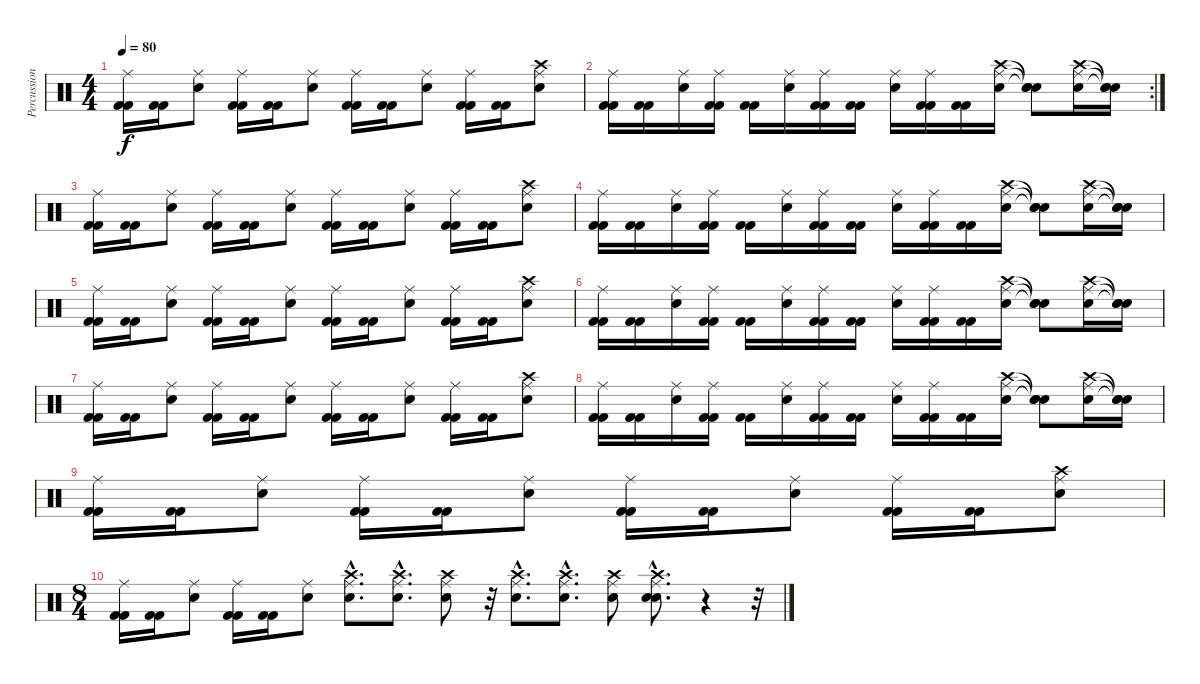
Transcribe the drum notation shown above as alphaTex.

\track ("Percussion" "Percussion") {instrument percussion}
\staff {score}
\articulation defaults
\ts (4 4)
\tempo 80
\clef neutral
\ks c
("Kick (hit) 2" "Kick (hit) 2" "Ride (middle)").16{dy f} ("Kick (hit) 2" "Kick (hit) 2").16 ("Snare (hit) 2" "Ride (middle)").8 ("Kick (hit) 2" "Kick (hit) 2" "Ride (middle)").16 ("Kick (hit) 2" "Kick (hit) 2").16 ("Snare (hit) 2" "Ride (middle)").8 ("Kick (hit) 2" "Kick (hit) 2" "Ride (middle)").16 ("Kick (hit) 2" "Kick (hit) 2").16 ("Snare (hit) 2" "Ride (middle)").8 ("Kick (hit) 2" "Kick (hit) 2" "Ride (middle)").16 ("Kick (hit) 2" "Kick (hit) 2").16 ("Snare (hit) 2" "Crash high (hit)" "Ride (middle)").8 |
\rc 2
("Kick (hit) 2" "Kick (hit) 2" "Ride (middle)").16 ("Kick (hit) 2" "Kick (hit) 2").16 ("Snare (hit) 2" "Ride (middle)").16 ("Kick (hit) 2" "Kick (hit) 2" "Ride (middle)").16 ("Kick (hit) 2" "Kick (hit) 2").16 ("Snare (hit) 2" "Ride (middle)").16 ("Kick (hit) 2" "Kick (hit) 2" "Ride (middle)").16 ("Kick (hit) 2" "Kick (hit) 2").16 ("Snare (hit) 2" "Ride (middle)").16 ("Kick (hit) 2" "Kick (hit) 2" "Ride (middle)").16 ("Kick (hit) 2" "Kick (hit) 2").16 ("Snare (hit) 2" "Crash high (hit)" "Ride (middle)").16 ("Snare (hit)"{t} "Snare (hit)"{t} "Snare (hit)"{t}).8 ("Snare (hit) 2" "Crash high (hit)" "Ride (middle)").16 ("Snare (hit)"{t} "Snare (hit)"{t} "Snare (hit)"{t}).16 |
("Kick (hit) 2" "Kick (hit) 2" "Ride (middle)").16 ("Kick (hit) 2" "Kick (hit) 2").16 ("Snare (hit) 2" "Ride (middle)").8 ("Kick (hit) 2" "Kick (hit) 2" "Ride (middle)").16 ("Kick (hit) 2" "Kick (hit) 2").16 ("Snare (hit) 2" "Ride (middle)").8 ("Kick (hit) 2" "Kick (hit) 2" "Ride (middle)").16 ("Kick (hit) 2" "Kick (hit) 2").16 ("Snare (hit) 2" "Ride (middle)").8 ("Kick (hit) 2" "Kick (hit) 2" "Ride (middle)").16 ("Kick (hit) 2" "Kick (hit) 2").16 ("Snare (hit) 2" "Crash high (hit)" "Ride (middle)").8 |
("Kick (hit) 2" "Kick (hit) 2" "Ride (middle)").16 ("Kick (hit) 2" "Kick (hit) 2").16 ("Snare (hit) 2" "Ride (middle)").16 ("Kick (hit) 2" "Kick (hit) 2" "Ride (middle)").16 ("Kick (hit) 2" "Kick (hit) 2").16 ("Snare (hit) 2" "Ride (middle)").16 ("Kick (hit) 2" "Kick (hit) 2" "Ride (middle)").16 ("Kick (hit) 2" "Kick (hit) 2").16 ("Snare (hit) 2" "Ride (middle)").16 ("Kick (hit) 2" "Kick (hit) 2" "Ride (middle)").16 ("Kick (hit) 2" "Kick (hit) 2").16 ("Snare (hit) 2" "Crash high (hit)" "Ride (middle)").16 ("Snare (hit)"{t} "Snare (hit)"{t} "Snare (hit)"{t}).8 ("Snare (hit) 2" "Crash high (hit)" "Ride (middle)").16 ("Snare (hit)"{t} "Snare (hit)"{t} "Snare (hit)"{t}).16 |
("Kick (hit) 2" "Kick (hit) 2" "Ride (middle)").16 ("Kick (hit) 2" "Kick (hit) 2").16 ("Snare (hit) 2" "Ride (middle)").8 ("Kick (hit) 2" "Kick (hit) 2" "Ride (middle)").16 ("Kick (hit) 2" "Kick (hit) 2").16 ("Snare (hit) 2" "Ride (middle)").8 ("Kick (hit) 2" "Kick (hit) 2" "Ride (middle)").16 ("Kick (hit) 2" "Kick (hit) 2").16 ("Snare (hit) 2" "Ride (middle)").8 ("Kick (hit) 2" "Kick (hit) 2" "Ride (middle)").16 ("Kick (hit) 2" "Kick (hit) 2").16 ("Snare (hit) 2" "Crash high (hit)" "Ride (middle)").8 |
("Kick (hit) 2" "Kick (hit) 2" "Ride (middle)").16 ("Kick (hit) 2" "Kick (hit) 2").16 ("Snare (hit) 2" "Ride (middle)").16 ("Kick (hit) 2" "Kick (hit) 2" "Ride (middle)").16 ("Kick (hit) 2" "Kick (hit) 2").16 ("Snare (hit) 2" "Ride (middle)").16 ("Kick (hit) 2" "Kick (hit) 2" "Ride (middle)").16 ("Kick (hit) 2" "Kick (hit) 2").16 ("Snare (hit) 2" "Ride (middle)").16 ("Kick (hit) 2" "Kick (hit) 2" "Ride (middle)").16 ("Kick (hit) 2" "Kick (hit) 2").16 ("Snare (hit) 2" "Crash high (hit)" "Ride (middle)").16 ("Snare (hit)"{t} "Snare (hit)"{t} "Snare (hit)"{t}).8 ("Snare (hit) 2" "Crash high (hit)" "Ride (middle)").16 ("Snare (hit)"{t} "Snare (hit)"{t} "Snare (hit)"{t}).16 |
("Kick (hit) 2" "Kick (hit) 2" "Ride (middle)").16 ("Kick (hit) 2" "Kick (hit) 2").16 ("Snare (hit) 2" "Ride (middle)").8 ("Kick (hit) 2" "Kick (hit) 2" "Ride (middle)").16 ("Kick (hit) 2" "Kick (hit) 2").16 ("Snare (hit) 2" "Ride (middle)").8 ("Kick (hit) 2" "Kick (hit) 2" "Ride (middle)").16 ("Kick (hit) 2" "Kick (hit) 2").16 ("Snare (hit) 2" "Ride (middle)").8 ("Kick (hit) 2" "Kick (hit) 2" "Ride (middle)").16 ("Kick (hit) 2" "Kick (hit) 2").16 ("Snare (hit) 2" "Crash high (hit)" "Ride (middle)").8 |
("Kick (hit) 2" "Kick (hit) 2" "Ride (middle)").16 ("Kick (hit) 2" "Kick (hit) 2").16 ("Snare (hit) 2" "Ride (middle)").16 ("Kick (hit) 2" "Kick (hit) 2" "Ride (middle)").16 ("Kick (hit) 2" "Kick (hit) 2").16 ("Snare (hit) 2" "Ride (middle)").16 ("Kick (hit) 2" "Kick (hit) 2" "Ride (middle)").16 ("Kick (hit) 2" "Kick (hit) 2").16 ("Snare (hit) 2" "Ride (middle)").16 ("Kick (hit) 2" "Kick (hit) 2" "Ride (middle)").16 ("Kick (hit) 2" "Kick (hit) 2").16 ("Snare (hit) 2" "Crash high (hit)" "Ride (middle)").16 ("Snare (hit)"{t} "Snare (hit)"{t} "Snare (hit)"{t}).8 ("Snare (hit) 2" "Crash high (hit)" "Ride (middle)").16 ("Snare (hit)"{t} "Snare (hit)"{t} "Snare (hit)"{t}).16 |
("Kick (hit) 2" "Kick (hit) 2" "Ride (middle)").16 ("Kick (hit) 2" "Kick (hit) 2").16 ("Snare (hit) 2" "Ride (middle)").8 ("Kick (hit) 2" "Kick (hit) 2" "Ride (middle)").16 ("Kick (hit) 2" "Kick (hit) 2").16 ("Snare (hit) 2" "Ride (middle)").8 ("Kick (hit) 2" "Kick (hit) 2" "Ride (middle)").16 ("Kick (hit) 2" "Kick (hit) 2").16 ("Snare (hit) 2" "Ride (middle)").8 ("Kick (hit) 2" "Kick (hit) 2" "Ride (middle)").16 ("Kick (hit) 2" "Kick (hit) 2").16 ("Snare (hit) 2" "Crash high (hit)" "Ride (middle)").8 |
\ts (8 4)
("Kick (hit) 2" "Kick (hit) 2" "Ride (middle)").16 ("Kick (hit) 2" "Kick (hit) 2").16 ("Snare (hit) 2" "Ride (middle)").8 ("Kick (hit) 2" "Kick (hit) 2" "Ride (middle)").16 ("Kick (hit) 2" "Kick (hit) 2").16 ("Snare (hit) 2" "Ride (middle)").8 ("Snare (hit) 2"{hac} "Crash high (hit)"{hac} "Ride (middle)"{hac}).8{d} ("Snare (hit) 2"{hac} "Crash high (hit)"{hac} "Ride (middle)"{hac}).8{d} ("Snare (hit) 2" "Crash high (hit)" "Ride (middle)").8 r.32 ("Snare (hit) 2"{hac} "Crash high (hit)"{hac} "Ride (middle)"{hac}).8{d} ("Snare (hit) 2"{hac} "Crash high (hit)"{hac} "Ride (middle)"{hac}).8{d} ("Snare (hit) 2" "Crash high (hit)" "Ride (middle)").8 ("Snare (hit) 2"{hac} "Crash high (hit)"{hac} "Snare (hit) 2"{hac} "Ride (middle)"{hac}).8{d} r.4 r.32
